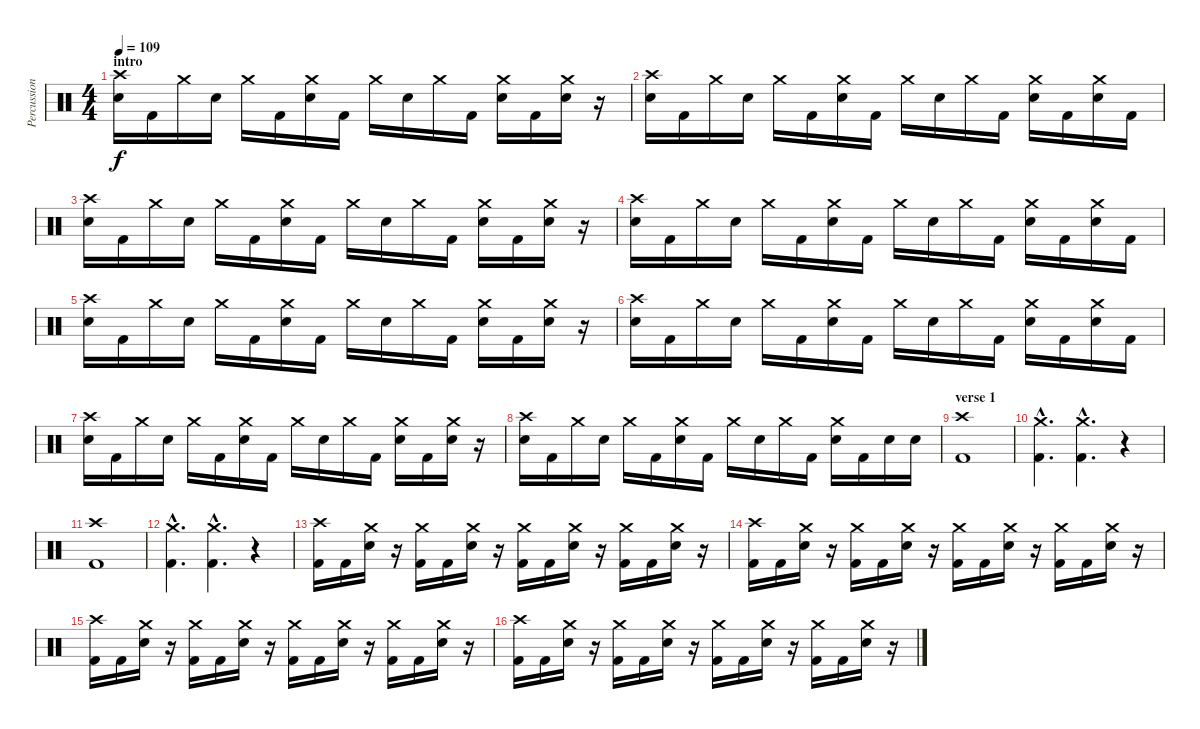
\track ("Percussion" "Percussion") {instrument percussion}
\staff {score}
\articulation defaults
\ts (4 4)
\section ("" "intro")
\tempo 109
\clef neutral
\ks c
("Crash high (hit)" "Electric Snare (hit)").16{dy f} "Kick (hit) 2".16 "Crash medium (hit)".16 "Electric Snare (hit)".16 "Crash medium (hit)".16 "Kick (hit) 2".16 ("Crash medium (hit)" "Electric Snare (hit)").16 "Kick (hit) 2".16 "Crash medium (hit)".16 "Electric Snare (hit)".16 "Crash medium (hit)".16 "Kick (hit) 2".16 ("Crash medium (hit)" "Electric Snare (hit)").16 "Kick (hit) 2".16 ("Crash medium (hit)" "Electric Snare (hit)").16 r.16 |
("Crash high (hit)" "Electric Snare (hit)").16 "Kick (hit) 2".16 "Crash medium (hit)".16 "Electric Snare (hit)".16 "Crash medium (hit)".16 "Kick (hit) 2".16 ("Crash medium (hit)" "Electric Snare (hit)").16 "Kick (hit) 2".16 "Crash medium (hit)".16 "Electric Snare (hit)".16 "Crash medium (hit)".16 "Kick (hit) 2".16 ("Crash medium (hit)" "Electric Snare (hit)").16 "Kick (hit) 2".16 ("Crash medium (hit)" "Electric Snare (hit)").16 "Kick (hit) 2".16 |
("Crash high (hit)" "Electric Snare (hit)").16 "Kick (hit) 2".16 "Crash medium (hit)".16 "Electric Snare (hit)".16 "Crash medium (hit)".16 "Kick (hit) 2".16 ("Crash medium (hit)" "Electric Snare (hit)").16 "Kick (hit) 2".16 "Crash medium (hit)".16 "Electric Snare (hit)".16 "Crash medium (hit)".16 "Kick (hit) 2".16 ("Crash medium (hit)" "Electric Snare (hit)").16 "Kick (hit) 2".16 ("Crash medium (hit)" "Electric Snare (hit)").16 r.16 |
("Crash high (hit)" "Electric Snare (hit)").16 "Kick (hit) 2".16 "Crash medium (hit)".16 "Electric Snare (hit)".16 "Crash medium (hit)".16 "Kick (hit) 2".16 ("Crash medium (hit)" "Electric Snare (hit)").16 "Kick (hit) 2".16 "Crash medium (hit)".16 "Electric Snare (hit)".16 "Crash medium (hit)".16 "Kick (hit) 2".16 ("Crash medium (hit)" "Electric Snare (hit)").16 "Kick (hit) 2".16 ("Crash medium (hit)" "Electric Snare (hit)").16 "Kick (hit) 2".16 |
("Crash high (hit)" "Electric Snare (hit)").16 "Kick (hit) 2".16 "Crash medium (hit)".16 "Electric Snare (hit)".16 "Crash medium (hit)".16 "Kick (hit) 2".16 ("Crash medium (hit)" "Electric Snare (hit)").16 "Kick (hit) 2".16 "Crash medium (hit)".16 "Electric Snare (hit)".16 "Crash medium (hit)".16 "Kick (hit) 2".16 ("Crash medium (hit)" "Electric Snare (hit)").16 "Kick (hit) 2".16 ("Crash medium (hit)" "Electric Snare (hit)").16 r.16 |
("Crash high (hit)" "Electric Snare (hit)").16 "Kick (hit) 2".16 "Crash medium (hit)".16 "Electric Snare (hit)".16 "Crash medium (hit)".16 "Kick (hit) 2".16 ("Crash medium (hit)" "Electric Snare (hit)").16 "Kick (hit) 2".16 "Crash medium (hit)".16 "Electric Snare (hit)".16 "Crash medium (hit)".16 "Kick (hit) 2".16 ("Crash medium (hit)" "Electric Snare (hit)").16 "Kick (hit) 2".16 ("Crash medium (hit)" "Electric Snare (hit)").16 "Kick (hit) 2".16 |
("Crash high (hit)" "Electric Snare (hit)").16 "Kick (hit) 2".16 "Crash medium (hit)".16 "Electric Snare (hit)".16 "Crash medium (hit)".16 "Kick (hit) 2".16 ("Crash medium (hit)" "Electric Snare (hit)").16 "Kick (hit) 2".16 "Crash medium (hit)".16 "Electric Snare (hit)".16 "Crash medium (hit)".16 "Kick (hit) 2".16 ("Crash medium (hit)" "Electric Snare (hit)").16 "Kick (hit) 2".16 ("Crash medium (hit)" "Electric Snare (hit)").16 r.16 |
("Crash high (hit)" "Electric Snare (hit)").16 "Kick (hit) 2".16 "Crash medium (hit)".16 "Electric Snare (hit)".16 "Crash medium (hit)".16 "Kick (hit) 2".16 ("Crash medium (hit)" "Electric Snare (hit)").16 "Kick (hit) 2".16 "Crash medium (hit)".16 "Electric Snare (hit)".16 "Crash medium (hit)".16 "Kick (hit) 2".16 ("Crash medium (hit)" "Electric Snare (hit)").16 "Kick (hit) 2".16 "Electric Snare (hit)".16 "Electric Snare (hit)".16 |
\section ("" "verse 1")
("Crash high (hit)" "Kick (hit) 2").1 |
("Crash medium (hit)"{hac} "Kick (hit) 2"{hac}).4{d} ("Crash medium (hit)"{hac} "Kick (hit) 2"{hac}).4{d} r.4 |
("Crash high (hit)" "Kick (hit) 2").1 |
("Crash medium (hit)"{hac} "Kick (hit) 2"{hac}).4{d} ("Crash medium (hit)"{hac} "Kick (hit) 2"{hac}).4{d} r.4 |
("Crash high (hit)" "Kick (hit) 2").16 "Kick (hit) 2".16 ("Crash medium (hit)" "Electric Snare (hit)").16 r.16 ("Crash medium (hit)" "Kick (hit) 2").16 "Kick (hit) 2".16 ("Crash medium (hit)" "Electric Snare (hit)").16 r.16 ("Crash medium (hit)" "Kick (hit) 2").16 "Kick (hit) 2".16 ("Crash medium (hit)" "Electric Snare (hit)").16 r.16 ("Crash medium (hit)" "Kick (hit) 2").16 "Kick (hit) 2".16 ("Crash medium (hit)" "Electric Snare (hit)").16 r.16 |
("Crash high (hit)" "Kick (hit) 2").16 "Kick (hit) 2".16 ("Crash medium (hit)" "Electric Snare (hit)").16 r.16 ("Crash medium (hit)" "Kick (hit) 2").16 "Kick (hit) 2".16 ("Crash medium (hit)" "Electric Snare (hit)").16 r.16 ("Crash medium (hit)" "Kick (hit) 2").16 "Kick (hit) 2".16 ("Crash medium (hit)" "Electric Snare (hit)").16 r.16 ("Crash medium (hit)" "Kick (hit) 2").16 "Kick (hit) 2".16 ("Crash medium (hit)" "Electric Snare (hit)").16 r.16 |
("Crash high (hit)" "Kick (hit) 2").16 "Kick (hit) 2".16 ("Crash medium (hit)" "Electric Snare (hit)").16 r.16 ("Crash medium (hit)" "Kick (hit) 2").16 "Kick (hit) 2".16 ("Crash medium (hit)" "Electric Snare (hit)").16 r.16 ("Crash medium (hit)" "Kick (hit) 2").16 "Kick (hit) 2".16 ("Crash medium (hit)" "Electric Snare (hit)").16 r.16 ("Crash medium (hit)" "Kick (hit) 2").16 "Kick (hit) 2".16 ("Crash medium (hit)" "Electric Snare (hit)").16 r.16 |
("Crash high (hit)" "Kick (hit) 2").16 "Kick (hit) 2".16 ("Crash medium (hit)" "Electric Snare (hit)").16 r.16 ("Crash medium (hit)" "Kick (hit) 2").16 "Kick (hit) 2".16 ("Crash medium (hit)" "Electric Snare (hit)").16 r.16 ("Crash medium (hit)" "Kick (hit) 2").16 "Kick (hit) 2".16 ("Crash medium (hit)" "Electric Snare (hit)").16 r.16 ("Crash medium (hit)" "Kick (hit) 2").16 "Kick (hit) 2".16 ("Crash medium (hit)" "Electric Snare (hit)").16 r.16
